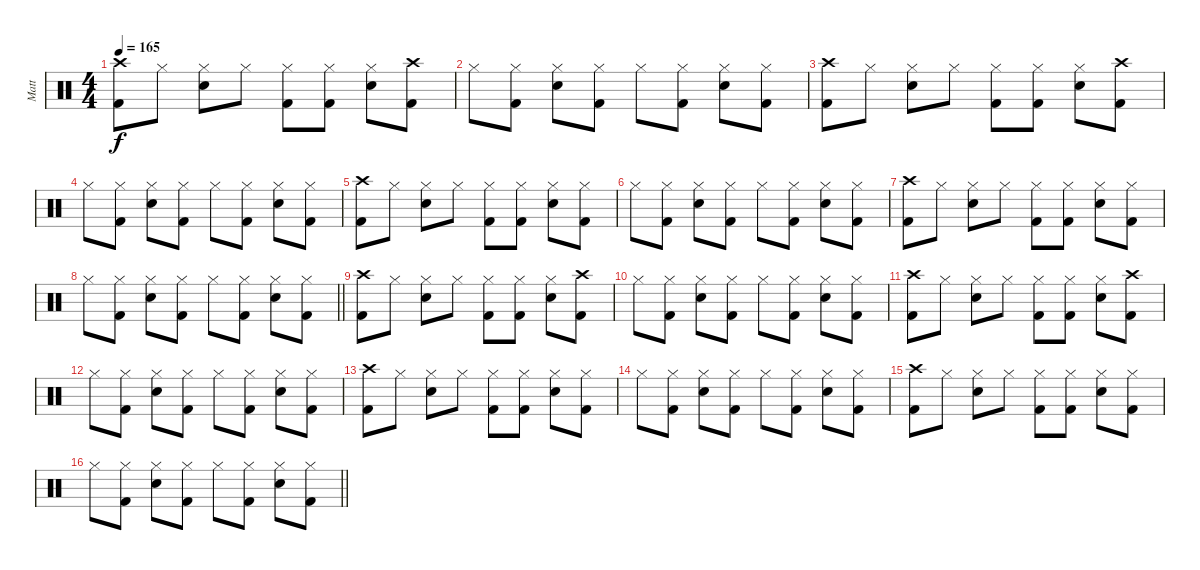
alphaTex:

\track ("Matt" "Matt") {instrument percussion}
\staff {score}
\articulation defaults
\ts (4 4)
\tempo 165
\clef neutral
\ks c
("Crash high (hit)" "Kick (hit) 2").8{dy f} "Hi-Hat (closed)".8 ("Hi-Hat (closed)" "Snare (hit) 2").8 "Hi-Hat (closed)".8 ("Hi-Hat (closed)" "Kick (hit) 2").8 ("Hi-Hat (closed)" "Kick (hit) 2").8 ("Hi-Hat (closed)" "Snare (hit) 2").8 ("Crash high (hit)" "Kick (hit) 2").8 |
"Hi-Hat (closed)".8 ("Hi-Hat (closed)" "Kick (hit) 2").8 ("Hi-Hat (closed)" "Snare (hit) 2").8 ("Hi-Hat (closed)" "Kick (hit) 2").8 "Hi-Hat (closed)".8 ("Hi-Hat (closed)" "Kick (hit) 2").8 ("Hi-Hat (closed)" "Snare (hit) 2").8 ("Hi-Hat (closed)" "Kick (hit) 2").8 |
("Crash high (hit)" "Kick (hit) 2").8 "Hi-Hat (closed)".8 ("Hi-Hat (closed)" "Snare (hit) 2").8 "Hi-Hat (closed)".8 ("Hi-Hat (closed)" "Kick (hit) 2").8 ("Hi-Hat (closed)" "Kick (hit) 2").8 ("Hi-Hat (closed)" "Snare (hit) 2").8 ("Crash high (hit)" "Kick (hit) 2").8 |
"Hi-Hat (closed)".8 ("Hi-Hat (closed)" "Kick (hit) 2").8 ("Hi-Hat (closed)" "Snare (hit) 2").8 ("Hi-Hat (closed)" "Kick (hit) 2").8 "Hi-Hat (closed)".8 ("Hi-Hat (closed)" "Kick (hit) 2").8 ("Hi-Hat (closed)" "Snare (hit) 2").8 ("Hi-Hat (closed)" "Kick (hit) 2").8 |
("Crash high (hit)" "Kick (hit) 2").8 "Hi-Hat (closed)".8 ("Hi-Hat (closed)" "Snare (hit) 2").8 "Hi-Hat (closed)".8 ("Hi-Hat (closed)" "Kick (hit) 2").8 ("Hi-Hat (closed)" "Kick (hit) 2").8 ("Hi-Hat (closed)" "Snare (hit) 2").8 ("Hi-Hat (closed)" "Kick (hit) 2").8 |
"Hi-Hat (closed)".8 ("Hi-Hat (closed)" "Kick (hit) 2").8 ("Hi-Hat (closed)" "Snare (hit) 2").8 ("Hi-Hat (closed)" "Kick (hit) 2").8 "Hi-Hat (closed)".8 ("Hi-Hat (closed)" "Kick (hit) 2").8 ("Hi-Hat (closed)" "Snare (hit) 2").8 ("Hi-Hat (closed)" "Kick (hit) 2").8 |
("Crash high (hit)" "Kick (hit) 2").8 "Hi-Hat (closed)".8 ("Hi-Hat (closed)" "Snare (hit) 2").8 "Hi-Hat (closed)".8 ("Hi-Hat (closed)" "Kick (hit) 2").8 ("Hi-Hat (closed)" "Kick (hit) 2").8 ("Hi-Hat (closed)" "Snare (hit) 2").8 ("Hi-Hat (closed)" "Kick (hit) 2").8 |
\barLineRight lightlight "Hi-Hat (closed)".8
("Hi-Hat (closed)" "Kick (hit) 2").8 ("Hi-Hat (closed)" "Snare (hit) 2").8 ("Hi-Hat (closed)" "Kick (hit) 2").8 "Hi-Hat (closed)".8 ("Hi-Hat (closed)" "Kick (hit) 2").8 ("Hi-Hat (closed)" "Snare (hit) 2").8 ("Hi-Hat (closed)" "Kick (hit) 2").8 |
("Crash high (hit)" "Kick (hit) 2").8 "Hi-Hat (closed)".8 ("Hi-Hat (closed)" "Snare (hit) 2").8 "Hi-Hat (closed)".8 ("Hi-Hat (closed)" "Kick (hit) 2").8 ("Hi-Hat (closed)" "Kick (hit) 2").8 ("Hi-Hat (closed)" "Snare (hit) 2").8 ("Crash high (hit)" "Kick (hit) 2").8 |
"Hi-Hat (closed)".8 ("Hi-Hat (closed)" "Kick (hit) 2").8 ("Hi-Hat (closed)" "Snare (hit) 2").8 ("Hi-Hat (closed)" "Kick (hit) 2").8 "Hi-Hat (closed)".8 ("Hi-Hat (closed)" "Kick (hit) 2").8 ("Hi-Hat (closed)" "Snare (hit) 2").8 ("Hi-Hat (closed)" "Kick (hit) 2").8 |
("Crash high (hit)" "Kick (hit) 2").8 "Hi-Hat (closed)".8 ("Hi-Hat (closed)" "Snare (hit) 2").8 "Hi-Hat (closed)".8 ("Hi-Hat (closed)" "Kick (hit) 2").8 ("Hi-Hat (closed)" "Kick (hit) 2").8 ("Hi-Hat (closed)" "Snare (hit) 2").8 ("Crash high (hit)" "Kick (hit) 2").8 |
"Hi-Hat (closed)".8 ("Hi-Hat (closed)" "Kick (hit) 2").8 ("Hi-Hat (closed)" "Snare (hit) 2").8 ("Hi-Hat (closed)" "Kick (hit) 2").8 "Hi-Hat (closed)".8 ("Hi-Hat (closed)" "Kick (hit) 2").8 ("Hi-Hat (closed)" "Snare (hit) 2").8 ("Hi-Hat (closed)" "Kick (hit) 2").8 |
("Crash high (hit)" "Kick (hit) 2").8 "Hi-Hat (closed)".8 ("Hi-Hat (closed)" "Snare (hit) 2").8 "Hi-Hat (closed)".8 ("Hi-Hat (closed)" "Kick (hit) 2").8 ("Hi-Hat (closed)" "Kick (hit) 2").8 ("Hi-Hat (closed)" "Snare (hit) 2").8 ("Hi-Hat (closed)" "Kick (hit) 2").8 |
"Hi-Hat (closed)".8 ("Hi-Hat (closed)" "Kick (hit) 2").8 ("Hi-Hat (closed)" "Snare (hit) 2").8 ("Hi-Hat (closed)" "Kick (hit) 2").8 "Hi-Hat (closed)".8 ("Hi-Hat (closed)" "Kick (hit) 2").8 ("Hi-Hat (closed)" "Snare (hit) 2").8 ("Hi-Hat (closed)" "Kick (hit) 2").8 |
("Crash high (hit)" "Kick (hit) 2").8 "Hi-Hat (closed)".8 ("Hi-Hat (closed)" "Snare (hit) 2").8 "Hi-Hat (closed)".8 ("Hi-Hat (closed)" "Kick (hit) 2").8 ("Hi-Hat (closed)" "Kick (hit) 2").8 ("Hi-Hat (closed)" "Snare (hit) 2").8 ("Hi-Hat (closed)" "Kick (hit) 2").8 |
\barLineRight lightlight "Hi-Hat (closed)".8
("Hi-Hat (closed)" "Kick (hit) 2").8 ("Hi-Hat (closed)" "Snare (hit) 2").8 ("Hi-Hat (closed)" "Kick (hit) 2").8 "Hi-Hat (closed)".8 ("Hi-Hat (closed)" "Kick (hit) 2").8 ("Hi-Hat (closed)" "Snare (hit) 2").8 ("Hi-Hat (closed)" "Kick (hit) 2").8
